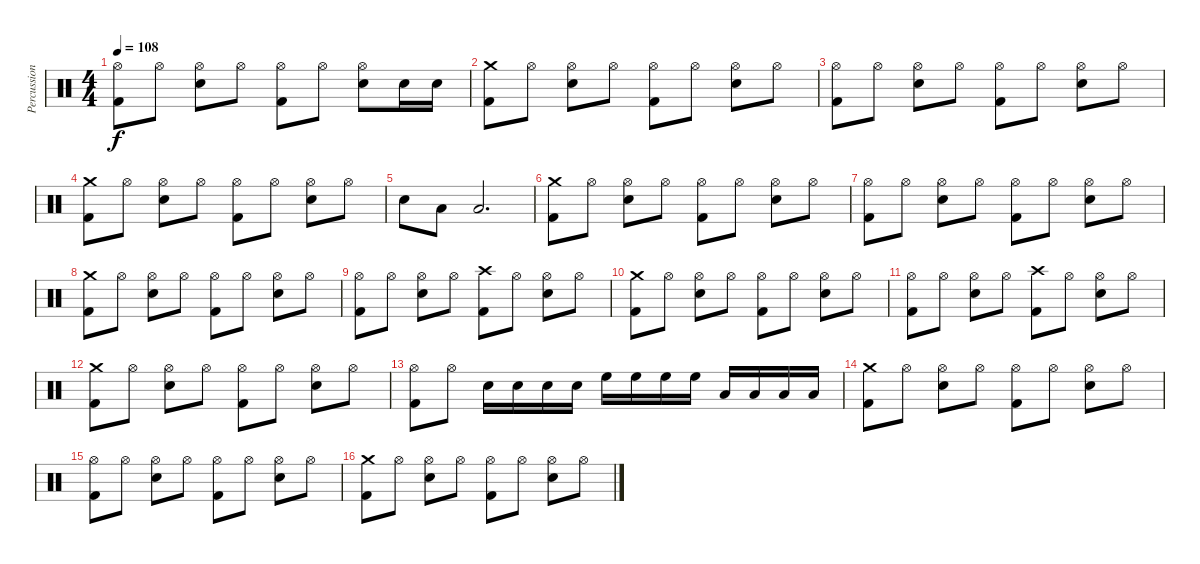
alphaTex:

\track ("Percussion" "Percussion") {instrument percussion}
\staff {score}
\articulation defaults
\ts (4 4)
\tempo 108
\clef neutral
\ks c
("Hi-Hat (open)" "Kick (hit) 2").8{dy f} "Hi-Hat (open)".8 ("Hi-Hat (open)" "Snare (hit) 2").8 "Hi-Hat (open)".8 ("Hi-Hat (open)" "Kick (hit) 2").8 "Hi-Hat (open)".8 ("Hi-Hat (open)" "Snare (hit) 2").8 "Snare (hit) 2".16 "Snare (hit) 2".16 |
("Crash medium (hit)" "Kick (hit) 2").8 "Hi-Hat (open)".8 ("Hi-Hat (open)" "Snare (hit) 2").8 "Hi-Hat (open)".8 ("Hi-Hat (open)" "Kick (hit) 2").8 "Hi-Hat (open)".8 ("Hi-Hat (open)" "Snare (hit) 2").8 "Hi-Hat (open)".8 |
("Hi-Hat (open)" "Kick (hit) 2").8 "Hi-Hat (open)".8 ("Hi-Hat (open)" "Snare (hit) 2").8 "Hi-Hat (open)".8 ("Hi-Hat (open)" "Kick (hit) 2").8 "Hi-Hat (open)".8 ("Hi-Hat (open)" "Snare (hit) 2").8 "Hi-Hat (open)".8 |
("Crash medium (hit)" "Kick (hit) 2").8 "Hi-Hat (open)".8 ("Hi-Hat (open)" "Snare (hit) 2").8 "Hi-Hat (open)".8 ("Hi-Hat (open)" "Kick (hit) 2").8 "Hi-Hat (open)".8 ("Hi-Hat (open)" "Snare (hit) 2").8 "Hi-Hat (open)".8 |
"Snare (hit) 2".8 "Low Tom (hit)".8 "Low Tom (hit)".2{d} |
("Crash medium (hit)" "Kick (hit) 2").8 "Hi-Hat (open)".8 ("Hi-Hat (open)" "Snare (hit) 2").8 "Hi-Hat (open)".8 ("Hi-Hat (open)" "Kick (hit) 2").8 "Hi-Hat (open)".8 ("Hi-Hat (open)" "Snare (hit) 2").8 "Hi-Hat (open)".8 |
("Hi-Hat (open)" "Kick (hit) 2").8 "Hi-Hat (open)".8 ("Hi-Hat (open)" "Snare (hit) 2").8 "Hi-Hat (open)".8 ("Hi-Hat (open)" "Kick (hit) 2").8 "Hi-Hat (open)".8 ("Hi-Hat (open)" "Snare (hit) 2").8 "Hi-Hat (open)".8 |
("Crash medium (hit)" "Kick (hit) 2").8 "Hi-Hat (open)".8 ("Hi-Hat (open)" "Snare (hit) 2").8 "Hi-Hat (open)".8 ("Hi-Hat (open)" "Kick (hit) 2").8 "Hi-Hat (open)".8 ("Hi-Hat (open)" "Snare (hit) 2").8 "Hi-Hat (open)".8 |
("Hi-Hat (open)" "Kick (hit) 2").8 "Hi-Hat (open)".8 ("Hi-Hat (open)" "Snare (hit) 2").8 "Hi-Hat (open)".8 ("Crash high (hit)" "Kick (hit) 2").8 "Hi-Hat (open)".8 ("Hi-Hat (open)" "Snare (hit) 2").8 "Hi-Hat (open)".8 |
("Crash medium (hit)" "Kick (hit) 2").8 "Hi-Hat (open)".8 ("Hi-Hat (open)" "Snare (hit) 2").8 "Hi-Hat (open)".8 ("Hi-Hat (open)" "Kick (hit) 2").8 "Hi-Hat (open)".8 ("Hi-Hat (open)" "Snare (hit) 2").8 "Hi-Hat (open)".8 |
("Hi-Hat (open)" "Kick (hit) 2").8 "Hi-Hat (open)".8 ("Hi-Hat (open)" "Snare (hit) 2").8 "Hi-Hat (open)".8 ("Crash high (hit)" "Kick (hit) 2").8 "Hi-Hat (open)".8 ("Hi-Hat (open)" "Snare (hit) 2").8 "Hi-Hat (open)".8 |
("Crash medium (hit)" "Kick (hit) 2").8 "Hi-Hat (open)".8 ("Hi-Hat (open)" "Snare (hit) 2").8 "Hi-Hat (open)".8 ("Hi-Hat (open)" "Kick (hit) 2").8 "Hi-Hat (open)".8 ("Hi-Hat (open)" "Snare (hit) 2").8 "Hi-Hat (open)".8 |
("Hi-Hat (open)" "Kick (hit) 2").8 "Hi-Hat (open)".8 "Snare (hit) 2".16 "Snare (hit) 2".16 "Snare (hit) 2".16 "Snare (hit) 2".16 "High Floor Tom (hit)".16 "High Floor Tom (hit)".16 "High Floor Tom (hit)".16 "High Floor Tom (hit)".16 "Low Tom (hit)".16 "Low Tom (hit)".16 "Low Tom (hit)".16 "Low Tom (hit)".16 |
("Crash medium (hit)" "Kick (hit) 2").8 "Hi-Hat (open)".8 ("Hi-Hat (open)" "Snare (hit) 2").8 "Hi-Hat (open)".8 ("Hi-Hat (open)" "Kick (hit) 2").8 "Hi-Hat (open)".8 ("Hi-Hat (open)" "Snare (hit) 2").8 "Hi-Hat (open)".8 |
("Hi-Hat (open)" "Kick (hit) 2").8 "Hi-Hat (open)".8 ("Hi-Hat (open)" "Snare (hit) 2").8 "Hi-Hat (open)".8 ("Hi-Hat (open)" "Kick (hit) 2").8 "Hi-Hat (open)".8 ("Hi-Hat (open)" "Snare (hit) 2").8 "Hi-Hat (open)".8 |
("Crash medium (hit)" "Kick (hit) 2").8 "Hi-Hat (open)".8 ("Hi-Hat (open)" "Snare (hit) 2").8 "Hi-Hat (open)".8 ("Hi-Hat (open)" "Kick (hit) 2").8 "Hi-Hat (open)".8 ("Hi-Hat (open)" "Snare (hit) 2").8 "Hi-Hat (open)".8
